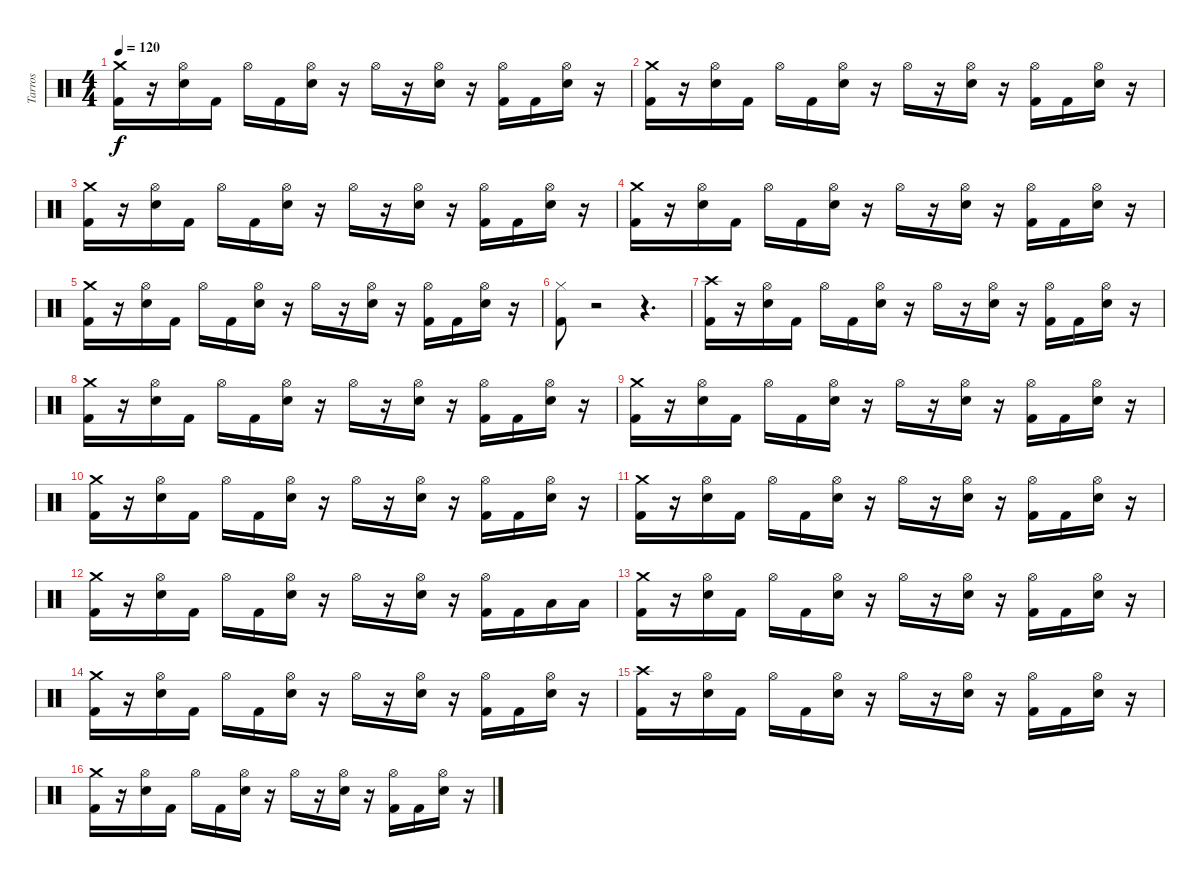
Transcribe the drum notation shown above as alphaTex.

\track ("Tarros" "Tarros") {instrument percussion}
\staff {score}
\articulation defaults
\ts (4 4)
\tempo 120
\clef neutral
\ks c
("Crash medium (hit)" "Kick (hit) 2").16{dy f} r.16 ("Hi-Hat (open)" "Electric Snare (hit)").16 "Kick (hit) 2".16 "Hi-Hat (open)".16 "Kick (hit) 2".16 ("Hi-Hat (open)" "Electric Snare (hit)").16 r.16 "Hi-Hat (open)".16 r.16 ("Hi-Hat (open)" "Electric Snare (hit)").16 r.16 ("Hi-Hat (open)" "Kick (hit) 2").16 "Kick (hit) 2".16 ("Hi-Hat (open)" "Electric Snare (hit)").16 r.16 |
("Crash medium (hit)" "Kick (hit) 2").16 r.16 ("Hi-Hat (open)" "Electric Snare (hit)").16 "Kick (hit) 2".16 "Hi-Hat (open)".16 "Kick (hit) 2".16 ("Hi-Hat (open)" "Electric Snare (hit)").16 r.16 "Hi-Hat (open)".16 r.16 ("Hi-Hat (open)" "Electric Snare (hit)").16 r.16 ("Hi-Hat (open)" "Kick (hit) 2").16 "Kick (hit) 2".16 ("Hi-Hat (open)" "Electric Snare (hit)").16 r.16 |
("Crash medium (hit)" "Kick (hit) 2").16 r.16 ("Hi-Hat (open)" "Electric Snare (hit)").16 "Kick (hit) 2".16 "Hi-Hat (open)".16 "Kick (hit) 2".16 ("Hi-Hat (open)" "Electric Snare (hit)").16 r.16 "Hi-Hat (open)".16 r.16 ("Hi-Hat (open)" "Electric Snare (hit)").16 r.16 ("Hi-Hat (open)" "Kick (hit) 2").16 "Kick (hit) 2".16 ("Hi-Hat (open)" "Electric Snare (hit)").16 r.16 |
("Crash medium (hit)" "Kick (hit) 2").16 r.16 ("Hi-Hat (open)" "Electric Snare (hit)").16 "Kick (hit) 2".16 "Hi-Hat (open)".16 "Kick (hit) 2".16 ("Hi-Hat (open)" "Electric Snare (hit)").16 r.16 "Hi-Hat (open)".16 r.16 ("Hi-Hat (open)" "Electric Snare (hit)").16 r.16 ("Hi-Hat (open)" "Kick (hit) 2").16 "Kick (hit) 2".16 ("Hi-Hat (open)" "Electric Snare (hit)").16 r.16 |
("Crash medium (hit)" "Kick (hit) 2").16 r.16 ("Hi-Hat (open)" "Electric Snare (hit)").16 "Kick (hit) 2".16 "Hi-Hat (open)".16 "Kick (hit) 2".16 ("Hi-Hat (open)" "Electric Snare (hit)").16 r.16 "Hi-Hat (open)".16 r.16 ("Hi-Hat (open)" "Electric Snare (hit)").16 r.16 ("Hi-Hat (open)" "Kick (hit) 2").16 "Kick (hit) 2".16 ("Hi-Hat (open)" "Electric Snare (hit)").16 r.16 |
("Hi-Hat (closed)" "Kick (hit) 2").8 r.2 r.4{d} |
("Crash high (hit)" "Kick (hit) 2").16 r.16 ("Hi-Hat (open)" "Electric Snare (hit)").16 "Kick (hit) 2".16 "Hi-Hat (open)".16 "Kick (hit) 2".16 ("Hi-Hat (open)" "Electric Snare (hit)").16 r.16 "Hi-Hat (open)".16 r.16 ("Hi-Hat (open)" "Electric Snare (hit)").16 r.16 ("Hi-Hat (open)" "Kick (hit) 2").16 "Kick (hit) 2".16 ("Hi-Hat (open)" "Electric Snare (hit)").16 r.16 |
("Crash medium (hit)" "Kick (hit) 2").16 r.16 ("Hi-Hat (open)" "Electric Snare (hit)").16 "Kick (hit) 2".16 "Hi-Hat (open)".16 "Kick (hit) 2".16 ("Hi-Hat (open)" "Electric Snare (hit)").16 r.16 "Hi-Hat (open)".16 r.16 ("Hi-Hat (open)" "Electric Snare (hit)").16 r.16 ("Hi-Hat (open)" "Kick (hit) 2").16 "Kick (hit) 2".16 ("Hi-Hat (open)" "Electric Snare (hit)").16 r.16 |
("Crash medium (hit)" "Kick (hit) 2").16 r.16 ("Hi-Hat (open)" "Electric Snare (hit)").16 "Kick (hit) 2".16 "Hi-Hat (open)".16 "Kick (hit) 2".16 ("Hi-Hat (open)" "Electric Snare (hit)").16 r.16 "Hi-Hat (open)".16 r.16 ("Hi-Hat (open)" "Electric Snare (hit)").16 r.16 ("Hi-Hat (open)" "Kick (hit) 2").16 "Kick (hit) 2".16 ("Hi-Hat (open)" "Electric Snare (hit)").16 r.16 |
("Crash medium (hit)" "Kick (hit) 2").16 r.16 ("Hi-Hat (open)" "Electric Snare (hit)").16 "Kick (hit) 2".16 "Hi-Hat (open)".16 "Kick (hit) 2".16 ("Hi-Hat (open)" "Electric Snare (hit)").16 r.16 "Hi-Hat (open)".16 r.16 ("Hi-Hat (open)" "Electric Snare (hit)").16 r.16 ("Hi-Hat (open)" "Kick (hit) 2").16 "Kick (hit) 2".16 ("Hi-Hat (open)" "Electric Snare (hit)").16 r.16 |
("Crash medium (hit)" "Kick (hit) 2").16 r.16 ("Hi-Hat (open)" "Electric Snare (hit)").16 "Kick (hit) 2".16 "Hi-Hat (open)".16 "Kick (hit) 2".16 ("Hi-Hat (open)" "Electric Snare (hit)").16 r.16 "Hi-Hat (open)".16 r.16 ("Hi-Hat (open)" "Electric Snare (hit)").16 r.16 ("Hi-Hat (open)" "Kick (hit) 2").16 "Kick (hit) 2".16 ("Hi-Hat (open)" "Electric Snare (hit)").16 r.16 |
("Crash medium (hit)" "Kick (hit) 2").16 r.16 ("Hi-Hat (open)" "Electric Snare (hit)").16 "Kick (hit) 2".16 "Hi-Hat (open)".16 "Kick (hit) 2".16 ("Hi-Hat (open)" "Electric Snare (hit)").16 r.16 "Hi-Hat (open)".16 r.16 ("Hi-Hat (open)" "Electric Snare (hit)").16 r.16 ("Hi-Hat (open)" "Kick (hit) 2").16 "Kick (hit) 2".16 "Low Tom (hit)".16 "Low Tom (hit)".16 |
("Crash medium (hit)" "Kick (hit) 2").16 r.16 ("Hi-Hat (open)" "Electric Snare (hit)").16 "Kick (hit) 2".16 "Hi-Hat (open)".16 "Kick (hit) 2".16 ("Hi-Hat (open)" "Electric Snare (hit)").16 r.16 "Hi-Hat (open)".16 r.16 ("Hi-Hat (open)" "Electric Snare (hit)").16 r.16 ("Hi-Hat (open)" "Kick (hit) 2").16 "Kick (hit) 2".16 ("Hi-Hat (open)" "Electric Snare (hit)").16 r.16 |
("Crash medium (hit)" "Kick (hit) 2").16 r.16 ("Hi-Hat (open)" "Electric Snare (hit)").16 "Kick (hit) 2".16 "Hi-Hat (open)".16 "Kick (hit) 2".16 ("Hi-Hat (open)" "Electric Snare (hit)").16 r.16 "Hi-Hat (open)".16 r.16 ("Hi-Hat (open)" "Electric Snare (hit)").16 r.16 ("Hi-Hat (open)" "Kick (hit) 2").16 "Kick (hit) 2".16 ("Hi-Hat (open)" "Electric Snare (hit)").16 r.16 |
("Crash high (hit)" "Kick (hit) 2").16 r.16 ("Hi-Hat (open)" "Electric Snare (hit)").16 "Kick (hit) 2".16 "Hi-Hat (open)".16 "Kick (hit) 2".16 ("Hi-Hat (open)" "Electric Snare (hit)").16 r.16 "Hi-Hat (open)".16 r.16 ("Hi-Hat (open)" "Electric Snare (hit)").16 r.16 ("Hi-Hat (open)" "Kick (hit) 2").16 "Kick (hit) 2".16 ("Hi-Hat (open)" "Electric Snare (hit)").16 r.16 |
("Crash medium (hit)" "Kick (hit) 2").16 r.16 ("Hi-Hat (open)" "Electric Snare (hit)").16 "Kick (hit) 2".16 "Hi-Hat (open)".16 "Kick (hit) 2".16 ("Hi-Hat (open)" "Electric Snare (hit)").16 r.16 "Hi-Hat (open)".16 r.16 ("Hi-Hat (open)" "Electric Snare (hit)").16 r.16 ("Hi-Hat (open)" "Kick (hit) 2").16 "Kick (hit) 2".16 ("Hi-Hat (open)" "Electric Snare (hit)").16 r.16
